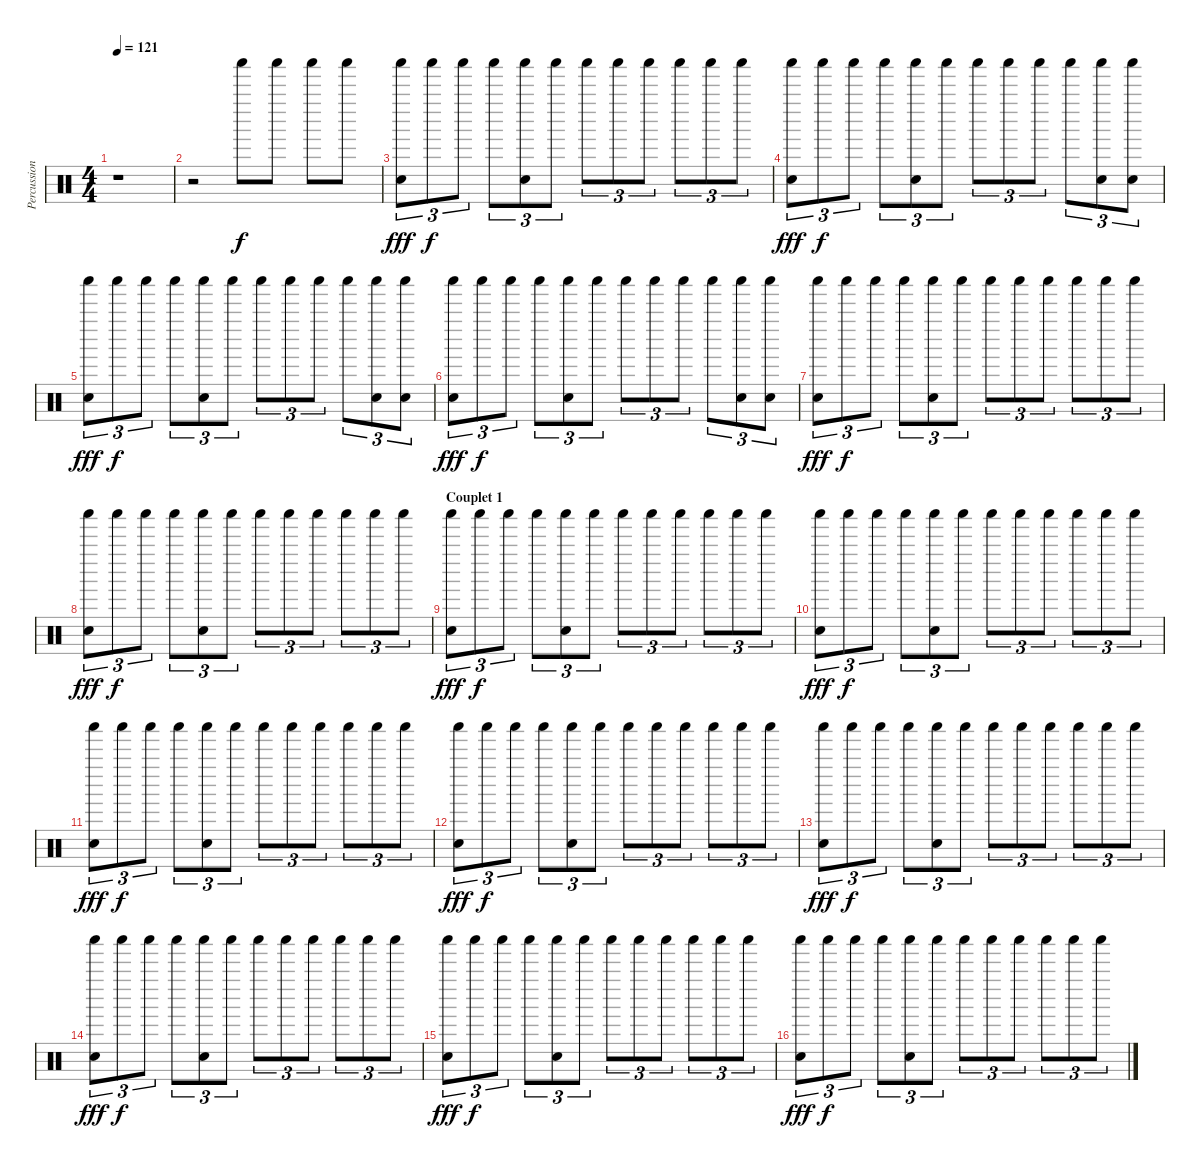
\track ("Percussions" "Percussion") {instrument percussion}
\staff {score}
\articulation defaults
\ts (4 4)
\tempo 121
\clef neutral
\ks c
r.1{dy f} |
r.2 "Shaker (hit)".8 "Shaker (hit)".8 "Shaker (hit)".8 "Shaker (hit)".8 |
("Shaker (hit)" "Electric Snare (hit)").8{tu (3 2) dy fff} "Shaker (hit)".8{tu (3 2) dy f} "Shaker (hit)".8{tu (3 2)} "Shaker (hit)".8{tu (3 2)} ("Shaker (hit)" "Electric Snare (hit)").8{tu (3 2)} "Shaker (hit)".8{tu (3 2)} "Shaker (hit)".8{tu (3 2)} "Shaker (hit)".8{tu (3 2)} "Shaker (hit)".8{tu (3 2)} "Shaker (hit)".8{tu (3 2)} "Shaker (hit)".8{tu (3 2)} "Shaker (hit)".8{tu (3 2)} |
("Shaker (hit)" "Electric Snare (hit)").8{tu (3 2) dy fff} "Shaker (hit)".8{tu (3 2) dy f} "Shaker (hit)".8{tu (3 2)} "Shaker (hit)".8{tu (3 2)} ("Shaker (hit)" "Electric Snare (hit)").8{tu (3 2)} "Shaker (hit)".8{tu (3 2)} "Shaker (hit)".8{tu (3 2)} "Shaker (hit)".8{tu (3 2)} "Shaker (hit)".8{tu (3 2)} "Shaker (hit)".8{tu (3 2)} ("Shaker (hit)" "Hand Clap (hit)").8{tu (3 2)} ("Shaker (hit)" "Hand Clap (hit)").8{tu (3 2)} |
("Shaker (hit)" "Electric Snare (hit)").8{tu (3 2) dy fff} "Shaker (hit)".8{tu (3 2) dy f} "Shaker (hit)".8{tu (3 2)} "Shaker (hit)".8{tu (3 2)} ("Shaker (hit)" "Electric Snare (hit)").8{tu (3 2)} "Shaker (hit)".8{tu (3 2)} "Shaker (hit)".8{tu (3 2)} "Shaker (hit)".8{tu (3 2)} "Shaker (hit)".8{tu (3 2)} "Shaker (hit)".8{tu (3 2)} ("Shaker (hit)" "Hand Clap (hit)").8{tu (3 2)} ("Shaker (hit)" "Hand Clap (hit)").8{tu (3 2)} |
("Shaker (hit)" "Electric Snare (hit)").8{tu (3 2) dy fff} "Shaker (hit)".8{tu (3 2) dy f} "Shaker (hit)".8{tu (3 2)} "Shaker (hit)".8{tu (3 2)} ("Shaker (hit)" "Electric Snare (hit)").8{tu (3 2)} "Shaker (hit)".8{tu (3 2)} "Shaker (hit)".8{tu (3 2)} "Shaker (hit)".8{tu (3 2)} "Shaker (hit)".8{tu (3 2)} "Shaker (hit)".8{tu (3 2)} ("Shaker (hit)" "Hand Clap (hit)").8{tu (3 2)} ("Shaker (hit)" "Hand Clap (hit)").8{tu (3 2)} |
("Shaker (hit)" "Electric Snare (hit)").8{tu (3 2) dy fff} "Shaker (hit)".8{tu (3 2) dy f} "Shaker (hit)".8{tu (3 2)} "Shaker (hit)".8{tu (3 2)} ("Shaker (hit)" "Electric Snare (hit)").8{tu (3 2)} "Shaker (hit)".8{tu (3 2)} "Shaker (hit)".8{tu (3 2)} "Shaker (hit)".8{tu (3 2)} "Shaker (hit)".8{tu (3 2)} "Shaker (hit)".8{tu (3 2)} "Shaker (hit)".8{tu (3 2)} "Shaker (hit)".8{tu (3 2)} |
("Shaker (hit)" "Electric Snare (hit)").8{tu (3 2) dy fff} "Shaker (hit)".8{tu (3 2) dy f} "Shaker (hit)".8{tu (3 2)} "Shaker (hit)".8{tu (3 2)} ("Shaker (hit)" "Electric Snare (hit)").8{tu (3 2)} "Shaker (hit)".8{tu (3 2)} "Shaker (hit)".8{tu (3 2)} "Shaker (hit)".8{tu (3 2)} "Shaker (hit)".8{tu (3 2)} "Shaker (hit)".8{tu (3 2)} "Shaker (hit)".8{tu (3 2)} "Shaker (hit)".8{tu (3 2)} |
\section ("" "Couplet 1")
("Shaker (hit)" "Electric Snare (hit)").8{tu (3 2) dy fff} "Shaker (hit)".8{tu (3 2) dy f} "Shaker (hit)".8{tu (3 2)} "Shaker (hit)".8{tu (3 2)} ("Shaker (hit)" "Electric Snare (hit)").8{tu (3 2)} "Shaker (hit)".8{tu (3 2)} "Shaker (hit)".8{tu (3 2)} "Shaker (hit)".8{tu (3 2)} "Shaker (hit)".8{tu (3 2)} "Shaker (hit)".8{tu (3 2)} "Shaker (hit)".8{tu (3 2)} "Shaker (hit)".8{tu (3 2)} |
("Shaker (hit)" "Electric Snare (hit)").8{tu (3 2) dy fff} "Shaker (hit)".8{tu (3 2) dy f} "Shaker (hit)".8{tu (3 2)} "Shaker (hit)".8{tu (3 2)} ("Shaker (hit)" "Electric Snare (hit)").8{tu (3 2)} "Shaker (hit)".8{tu (3 2)} "Shaker (hit)".8{tu (3 2)} "Shaker (hit)".8{tu (3 2)} "Shaker (hit)".8{tu (3 2)} "Shaker (hit)".8{tu (3 2)} "Shaker (hit)".8{tu (3 2)} "Shaker (hit)".8{tu (3 2)} |
("Shaker (hit)" "Electric Snare (hit)").8{tu (3 2) dy fff} "Shaker (hit)".8{tu (3 2) dy f} "Shaker (hit)".8{tu (3 2)} "Shaker (hit)".8{tu (3 2)} ("Shaker (hit)" "Electric Snare (hit)").8{tu (3 2)} "Shaker (hit)".8{tu (3 2)} "Shaker (hit)".8{tu (3 2)} "Shaker (hit)".8{tu (3 2)} "Shaker (hit)".8{tu (3 2)} "Shaker (hit)".8{tu (3 2)} "Shaker (hit)".8{tu (3 2)} "Shaker (hit)".8{tu (3 2)} |
("Shaker (hit)" "Electric Snare (hit)").8{tu (3 2) dy fff} "Shaker (hit)".8{tu (3 2) dy f} "Shaker (hit)".8{tu (3 2)} "Shaker (hit)".8{tu (3 2)} ("Shaker (hit)" "Electric Snare (hit)").8{tu (3 2)} "Shaker (hit)".8{tu (3 2)} "Shaker (hit)".8{tu (3 2)} "Shaker (hit)".8{tu (3 2)} "Shaker (hit)".8{tu (3 2)} "Shaker (hit)".8{tu (3 2)} "Shaker (hit)".8{tu (3 2)} "Shaker (hit)".8{tu (3 2)} |
("Shaker (hit)" "Electric Snare (hit)").8{tu (3 2) dy fff} "Shaker (hit)".8{tu (3 2) dy f} "Shaker (hit)".8{tu (3 2)} "Shaker (hit)".8{tu (3 2)} ("Shaker (hit)" "Electric Snare (hit)").8{tu (3 2)} "Shaker (hit)".8{tu (3 2)} "Shaker (hit)".8{tu (3 2)} "Shaker (hit)".8{tu (3 2)} "Shaker (hit)".8{tu (3 2)} "Shaker (hit)".8{tu (3 2)} "Shaker (hit)".8{tu (3 2)} "Shaker (hit)".8{tu (3 2)} |
("Shaker (hit)" "Electric Snare (hit)").8{tu (3 2) dy fff} "Shaker (hit)".8{tu (3 2) dy f} "Shaker (hit)".8{tu (3 2)} "Shaker (hit)".8{tu (3 2)} ("Shaker (hit)" "Electric Snare (hit)").8{tu (3 2)} "Shaker (hit)".8{tu (3 2)} "Shaker (hit)".8{tu (3 2)} "Shaker (hit)".8{tu (3 2)} "Shaker (hit)".8{tu (3 2)} "Shaker (hit)".8{tu (3 2)} "Shaker (hit)".8{tu (3 2)} "Shaker (hit)".8{tu (3 2)} |
("Shaker (hit)" "Electric Snare (hit)").8{tu (3 2) dy fff} "Shaker (hit)".8{tu (3 2) dy f} "Shaker (hit)".8{tu (3 2)} "Shaker (hit)".8{tu (3 2)} ("Shaker (hit)" "Electric Snare (hit)").8{tu (3 2)} "Shaker (hit)".8{tu (3 2)} "Shaker (hit)".8{tu (3 2)} "Shaker (hit)".8{tu (3 2)} "Shaker (hit)".8{tu (3 2)} "Shaker (hit)".8{tu (3 2)} "Shaker (hit)".8{tu (3 2)} "Shaker (hit)".8{tu (3 2)} |
("Shaker (hit)" "Electric Snare (hit)").8{tu (3 2) dy fff} "Shaker (hit)".8{tu (3 2) dy f} "Shaker (hit)".8{tu (3 2)} "Shaker (hit)".8{tu (3 2)} ("Shaker (hit)" "Electric Snare (hit)").8{tu (3 2)} "Shaker (hit)".8{tu (3 2)} "Shaker (hit)".8{tu (3 2)} "Shaker (hit)".8{tu (3 2)} "Shaker (hit)".8{tu (3 2)} "Shaker (hit)".8{tu (3 2)} "Shaker (hit)".8{tu (3 2)} "Shaker (hit)".8{tu (3 2)}
